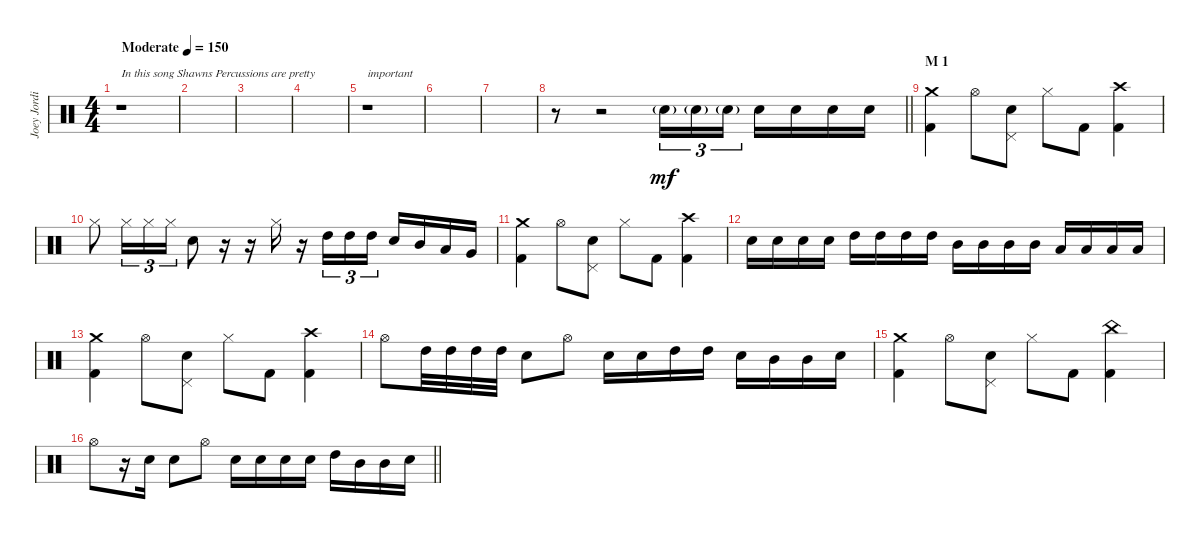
\track ("Joey Jordison" "Joey Jordi") {instrument percussion}
\staff {score}
\articulation defaults
\ts (4 4)
\tempo (150 "Moderate")
\clef neutral
\ks c
r.1{txt "In this song Shawns Percussions are pretty" dy mf} |
|
|
|
r.1{txt "important"} |
|
|
\barLineRight lightlight
r.8 r.2 "Electric Snare (hit)"{g}.16{tu (3 2)} "Electric Snare (hit)"{g}.16{tu (3 2)} "Electric Snare (hit)"{g}.16{tu (3 2)} "Electric Snare (hit)".16 "Electric Snare (hit)".16 "Electric Snare (hit)".16 "Electric Snare (hit)".16 |
\section ("" "M 1")
("Crash medium (hit)" "Kick (hit) 2").4 "Hi-Hat (open)".8 ("Electric Snare (hit)" "Pedal Hi-Hat (hit)").8 "Hi-Hat (closed)".8 "Kick (hit) 2".8 ("Crash high (hit)" "Kick (hit) 2").4 |
"Hi-Hat (closed)".8 "Hi-Hat (closed)".16{tu (3 2)} "Hi-Hat (closed)".16{tu (3 2)} "Hi-Hat (closed)".16{tu (3 2)} "Electric Snare (hit)".8 r.16 r.16 "Hi-Hat (closed)".16 r.16 "High Tom (hit)".16{tu (3 2)} "High Tom (hit)".16{tu (3 2)} "High Tom (hit)".16{tu (3 2)} "Electric Snare (hit)".16 "Mid Tom (hit)".16 "Low Tom (hit)".16 "Very Low Tom (hit)".16 |
("Crash medium (hit)" "Kick (hit) 2").4 "Hi-Hat (open)".8 ("Electric Snare (hit)" "Pedal Hi-Hat (hit)").8 "Hi-Hat (closed)".8 "Kick (hit) 2".8 ("Crash high (hit)" "Kick (hit) 2").4 |
"Electric Snare (hit)".16 "Electric Snare (hit)".16 "Electric Snare (hit)".16 "Electric Snare (hit)".16 "High Tom (hit)".16 "High Tom (hit)".16 "High Tom (hit)".16 "High Tom (hit)".16 "Mid Tom (hit)".16 "Mid Tom (hit)".16 "Mid Tom (hit)".16 "Mid Tom (hit)".16 "Low Tom (hit)".16 "Low Tom (hit)".16 "Low Tom (hit)".16 "Low Tom (hit)".16 |
("Crash medium (hit)" "Kick (hit) 2").4 "Hi-Hat (open)".8 ("Electric Snare (hit)" "Pedal Hi-Hat (hit)").8 "Hi-Hat (closed)".8 "Kick (hit) 2".8 ("Crash high (hit)" "Kick (hit) 2").4 |
"Hi-Hat (open)".8 "High Tom (hit)".32 "High Tom (hit)".32 "High Tom (hit)".32 "High Tom (hit)".32 "Electric Snare (hit)".8 "Hi-Hat (open)".8 "Electric Snare (hit)".16 "Electric Snare (hit)".16 "High Tom (hit)".16 "High Tom (hit)".16 "Electric Snare (hit)".16 "Mid Tom (hit)".16 "Mid Tom (hit)".16 "Electric Snare (hit)".16 |
("Crash medium (hit)" "Kick (hit) 2").4 "Hi-Hat (open)".8 ("Electric Snare (hit)" "Pedal Hi-Hat (hit)").8 "Hi-Hat (closed)".8 "Kick (hit) 2".8 ("China (hit)" "Kick (hit) 2").4 |
\barLineRight lightlight "Hi-Hat (open)".8
r.16 "Electric Snare (hit)".16 "Electric Snare (hit)".8 "Hi-Hat (open)".8 "Electric Snare (hit)".16 "Electric Snare (hit)".16 "Electric Snare (hit)".16 "Electric Snare (hit)".16 "High Tom (hit)".16 "Mid Tom (hit)".16 "Mid Tom (hit)".16 "Electric Snare (hit)".16
